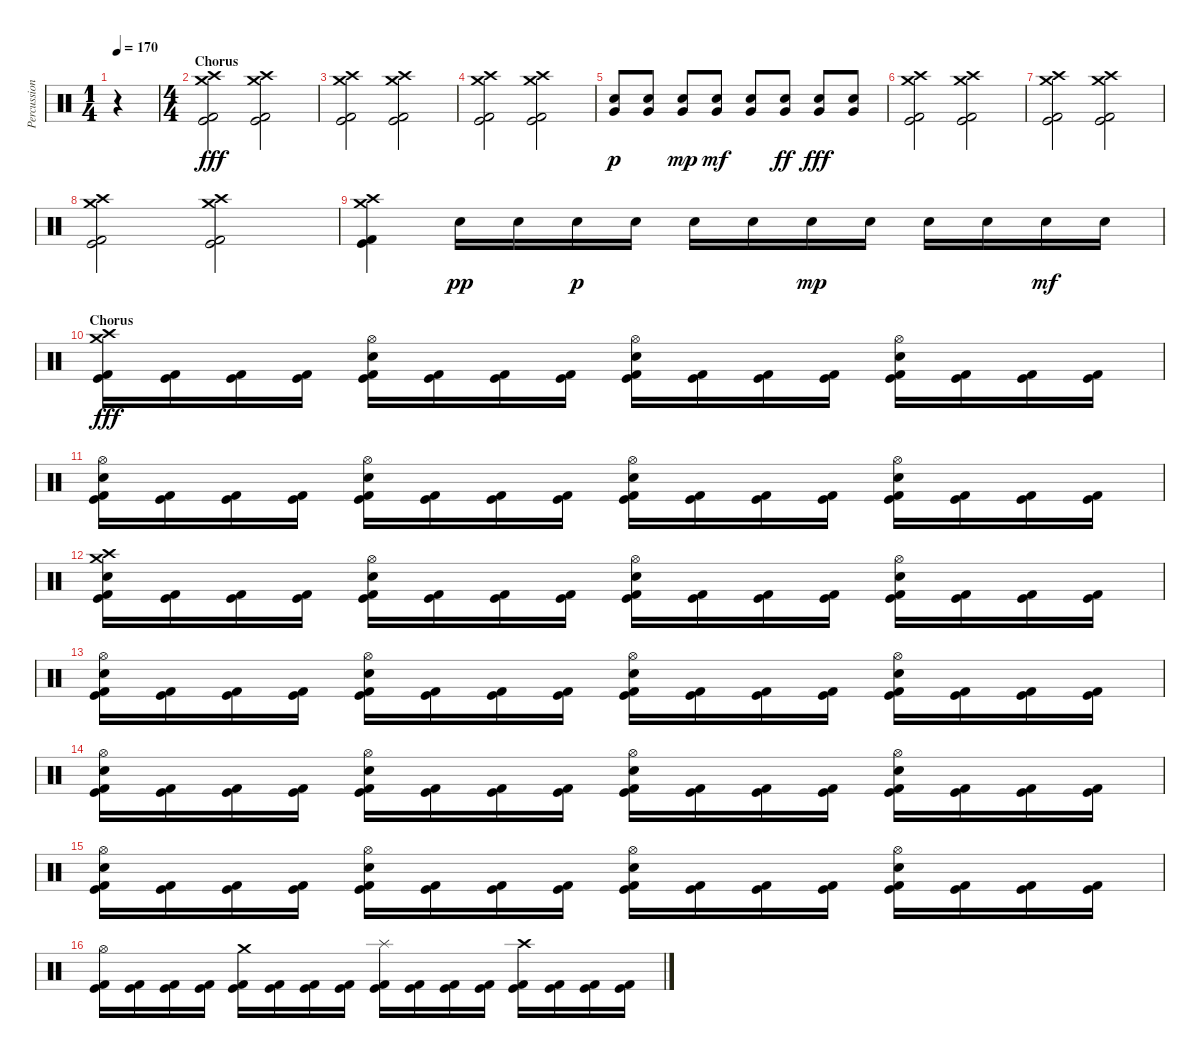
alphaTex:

\track ("Percussions" "Percussion") {instrument percussion}
\staff {score}
\articulation defaults
\ts (1 4)
\tempo 170
\clef neutral
\ks c
r.4{dy fff} |
\ts (4 4)
\section ("" "Chorus")
("Crash high (hit)" "Crash medium (hit)" "Kick (hit)" "Kick (hit) 2").2 ("Crash high (hit)" "Crash medium (hit)" "Kick (hit)" "Kick (hit) 2").2 |
("Crash high (hit)" "Crash medium (hit)" "Kick (hit)" "Kick (hit) 2").2 ("Crash high (hit)" "Crash medium (hit)" "Kick (hit)" "Kick (hit) 2").2 |
("Crash high (hit)" "Crash medium (hit)" "Kick (hit)" "Kick (hit) 2").2 ("Crash high (hit)" "Crash medium (hit)" "Kick (hit)" "Kick (hit) 2").2 |
("Very Low Tom (hit)" "Electric Snare (hit)").8{dy p} ("Very Low Tom (hit)" "Electric Snare (hit)").8 ("Very Low Tom (hit)" "Electric Snare (hit)").8{dy mp} ("Very Low Tom (hit)" "Electric Snare (hit)").8{dy mf} ("Very Low Tom (hit)" "Electric Snare (hit)").8 ("Very Low Tom (hit)" "Electric Snare (hit)").8{dy ff} ("Very Low Tom (hit)" "Electric Snare (hit)").8{dy fff} ("Very Low Tom (hit)" "Electric Snare (hit)").8 |
("Crash high (hit)" "Crash medium (hit)" "Kick (hit)" "Kick (hit) 2").2 ("Crash high (hit)" "Crash medium (hit)" "Kick (hit)" "Kick (hit) 2").2 |
("Crash high (hit)" "Crash medium (hit)" "Kick (hit)" "Kick (hit) 2").2 ("Crash high (hit)" "Crash medium (hit)" "Kick (hit)" "Kick (hit) 2").2 |
("Crash high (hit)" "Crash medium (hit)" "Kick (hit)" "Kick (hit) 2").2 ("Crash high (hit)" "Crash medium (hit)" "Kick (hit)" "Kick (hit) 2").2 |
("Crash high (hit)" "Crash medium (hit)" "Kick (hit)" "Kick (hit) 2").4 "Snare (hit) 2".16{dy pp} "Snare (hit) 2".16 "Snare (hit) 2".16{dy p} "Snare (hit) 2".16 "Snare (hit) 2".16 "Snare (hit) 2".16 "Snare (hit) 2".16{dy mp} "Snare (hit) 2".16 "Snare (hit) 2".16 "Snare (hit) 2".16 "Snare (hit) 2".16{dy mf} "Snare (hit) 2".16 |
\section ("" "Chorus")
("Crash high (hit)" "Crash medium (hit)" "Kick (hit)" "Kick (hit) 2").16{dy fff} ("Kick (hit)" "Kick (hit) 2").16 ("Kick (hit)" "Kick (hit) 2").16 ("Kick (hit)" "Kick (hit) 2").16 ("Hi-Hat (open)" "Electric Snare (hit)" "Kick (hit)" "Kick (hit) 2").16 ("Kick (hit)" "Kick (hit) 2").16 ("Kick (hit)" "Kick (hit) 2").16 ("Kick (hit)" "Kick (hit) 2").16 ("Hi-Hat (open)" "Electric Snare (hit)" "Kick (hit)" "Kick (hit) 2").16 ("Kick (hit)" "Kick (hit) 2").16 ("Kick (hit)" "Kick (hit) 2").16 ("Kick (hit)" "Kick (hit) 2").16 ("Hi-Hat (open)" "Electric Snare (hit)" "Kick (hit)" "Kick (hit) 2").16 ("Kick (hit)" "Kick (hit) 2").16 ("Kick (hit)" "Kick (hit) 2").16 ("Kick (hit)" "Kick (hit) 2").16 |
("Hi-Hat (open)" "Electric Snare (hit)" "Kick (hit)" "Kick (hit) 2").16 ("Kick (hit)" "Kick (hit) 2").16 ("Kick (hit)" "Kick (hit) 2").16 ("Kick (hit)" "Kick (hit) 2").16 ("Hi-Hat (open)" "Electric Snare (hit)" "Kick (hit)" "Kick (hit) 2").16 ("Kick (hit)" "Kick (hit) 2").16 ("Kick (hit)" "Kick (hit) 2").16 ("Kick (hit)" "Kick (hit) 2").16 ("Hi-Hat (open)" "Electric Snare (hit)" "Kick (hit)" "Kick (hit) 2").16 ("Kick (hit)" "Kick (hit) 2").16 ("Kick (hit)" "Kick (hit) 2").16 ("Kick (hit)" "Kick (hit) 2").16 ("Hi-Hat (open)" "Electric Snare (hit)" "Kick (hit)" "Kick (hit) 2").16 ("Kick (hit)" "Kick (hit) 2").16 ("Kick (hit)" "Kick (hit) 2").16 ("Kick (hit)" "Kick (hit) 2").16 |
("Crash high (hit)" "Crash medium (hit)" "Electric Snare (hit)" "Kick (hit)" "Kick (hit) 2").16 ("Kick (hit)" "Kick (hit) 2").16 ("Kick (hit)" "Kick (hit) 2").16 ("Kick (hit)" "Kick (hit) 2").16 ("Hi-Hat (open)" "Electric Snare (hit)" "Kick (hit)" "Kick (hit) 2").16 ("Kick (hit)" "Kick (hit) 2").16 ("Kick (hit)" "Kick (hit) 2").16 ("Kick (hit)" "Kick (hit) 2").16 ("Hi-Hat (open)" "Electric Snare (hit)" "Kick (hit)" "Kick (hit) 2").16 ("Kick (hit)" "Kick (hit) 2").16 ("Kick (hit)" "Kick (hit) 2").16 ("Kick (hit)" "Kick (hit) 2").16 ("Hi-Hat (open)" "Electric Snare (hit)" "Kick (hit)" "Kick (hit) 2").16 ("Kick (hit)" "Kick (hit) 2").16 ("Kick (hit)" "Kick (hit) 2").16 ("Kick (hit)" "Kick (hit) 2").16 |
("Hi-Hat (open)" "Electric Snare (hit)" "Kick (hit)" "Kick (hit) 2").16 ("Kick (hit)" "Kick (hit) 2").16 ("Kick (hit)" "Kick (hit) 2").16 ("Kick (hit)" "Kick (hit) 2").16 ("Hi-Hat (open)" "Electric Snare (hit)" "Kick (hit)" "Kick (hit) 2").16 ("Kick (hit)" "Kick (hit) 2").16 ("Kick (hit)" "Kick (hit) 2").16 ("Kick (hit)" "Kick (hit) 2").16 ("Hi-Hat (open)" "Electric Snare (hit)" "Kick (hit)" "Kick (hit) 2").16 ("Kick (hit)" "Kick (hit) 2").16 ("Kick (hit)" "Kick (hit) 2").16 ("Kick (hit)" "Kick (hit) 2").16 ("Hi-Hat (open)" "Electric Snare (hit)" "Kick (hit)" "Kick (hit) 2").16 ("Kick (hit)" "Kick (hit) 2").16 ("Kick (hit)" "Kick (hit) 2").16 ("Kick (hit)" "Kick (hit) 2").16 |
("Hi-Hat (open)" "Electric Snare (hit)" "Kick (hit)" "Kick (hit) 2").16 ("Kick (hit)" "Kick (hit) 2").16 ("Kick (hit)" "Kick (hit) 2").16 ("Kick (hit)" "Kick (hit) 2").16 ("Hi-Hat (open)" "Electric Snare (hit)" "Kick (hit)" "Kick (hit) 2").16 ("Kick (hit)" "Kick (hit) 2").16 ("Kick (hit)" "Kick (hit) 2").16 ("Kick (hit)" "Kick (hit) 2").16 ("Hi-Hat (open)" "Electric Snare (hit)" "Kick (hit)" "Kick (hit) 2").16 ("Kick (hit)" "Kick (hit) 2").16 ("Kick (hit)" "Kick (hit) 2").16 ("Kick (hit)" "Kick (hit) 2").16 ("Hi-Hat (open)" "Electric Snare (hit)" "Kick (hit)" "Kick (hit) 2").16 ("Kick (hit)" "Kick (hit) 2").16 ("Kick (hit)" "Kick (hit) 2").16 ("Kick (hit)" "Kick (hit) 2").16 |
("Hi-Hat (open)" "Electric Snare (hit)" "Kick (hit)" "Kick (hit) 2").16 ("Kick (hit)" "Kick (hit) 2").16 ("Kick (hit)" "Kick (hit) 2").16 ("Kick (hit)" "Kick (hit) 2").16 ("Hi-Hat (open)" "Electric Snare (hit)" "Kick (hit)" "Kick (hit) 2").16 ("Kick (hit)" "Kick (hit) 2").16 ("Kick (hit)" "Kick (hit) 2").16 ("Kick (hit)" "Kick (hit) 2").16 ("Hi-Hat (open)" "Electric Snare (hit)" "Kick (hit)" "Kick (hit) 2").16 ("Kick (hit)" "Kick (hit) 2").16 ("Kick (hit)" "Kick (hit) 2").16 ("Kick (hit)" "Kick (hit) 2").16 ("Hi-Hat (open)" "Electric Snare (hit)" "Kick (hit)" "Kick (hit) 2").16 ("Kick (hit)" "Kick (hit) 2").16 ("Kick (hit)" "Kick (hit) 2").16 ("Kick (hit)" "Kick (hit) 2").16 |
("Hi-Hat (open)" "Kick (hit)" "Kick (hit) 2").16 ("Kick (hit)" "Kick (hit) 2").16 ("Kick (hit)" "Kick (hit) 2").16 ("Kick (hit)" "Kick (hit) 2").16 ("Crash medium (hit)" "Kick (hit)" "Kick (hit) 2").16 ("Kick (hit)" "Kick (hit) 2").16 ("Kick (hit)" "Kick (hit) 2").16 ("Kick (hit)" "Kick (hit) 2").16 ("Splash (hit)" "Kick (hit)" "Kick (hit) 2").16 ("Kick (hit)" "Kick (hit) 2").16 ("Kick (hit)" "Kick (hit) 2").16 ("Kick (hit)" "Kick (hit) 2").16 ("Crash high (hit)" "Kick (hit)" "Kick (hit) 2").16 ("Kick (hit)" "Kick (hit) 2").16 ("Kick (hit)" "Kick (hit) 2").16 ("Kick (hit)" "Kick (hit) 2").16
